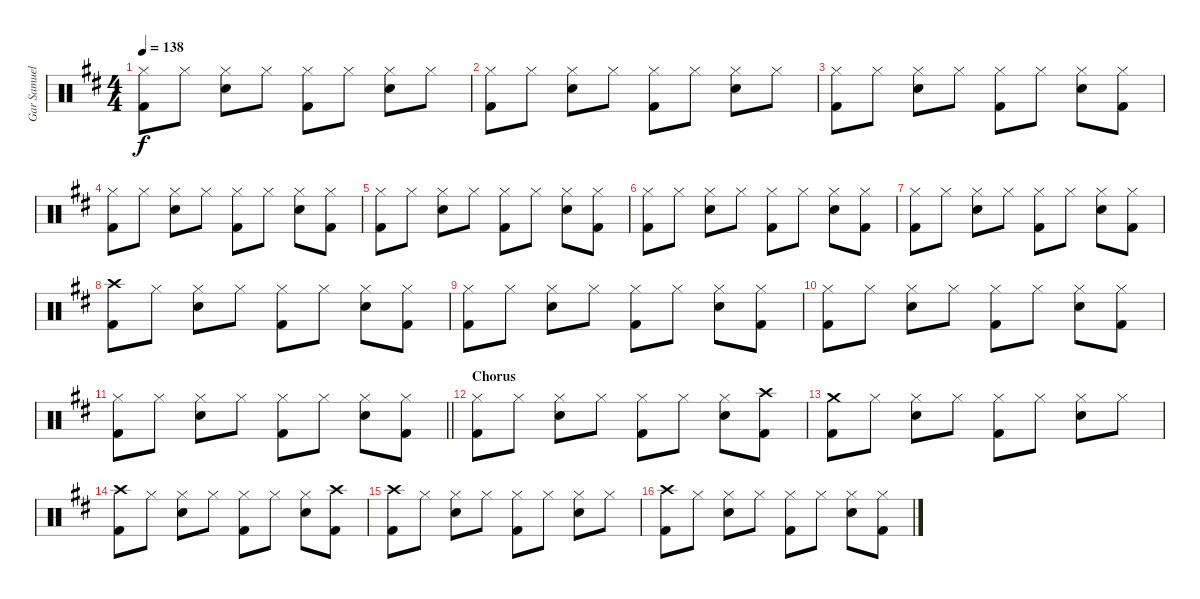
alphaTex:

\track ("Gar Samuelson" "Gar Samuel") {instrument percussion}
\staff {score}
\articulation defaults
\ts (4 4)
\tempo 138
\clef neutral
\ks d
("Hi-Hat (closed)" "Kick (hit) 2").8{dy f} "Hi-Hat (closed)".8 ("Hi-Hat (closed)" "Snare (hit) 2").8 "Hi-Hat (closed)".8 ("Hi-Hat (closed)" "Kick (hit) 2").8 "Hi-Hat (closed)".8 ("Hi-Hat (closed)" "Snare (hit) 2").8 "Hi-Hat (closed)".8 |
("Hi-Hat (closed)" "Kick (hit) 2").8 "Hi-Hat (closed)".8 ("Hi-Hat (closed)" "Snare (hit) 2").8 "Hi-Hat (closed)".8 ("Hi-Hat (closed)" "Kick (hit) 2").8 "Hi-Hat (closed)".8 ("Hi-Hat (closed)" "Snare (hit) 2").8 "Hi-Hat (closed)".8 |
("Hi-Hat (closed)" "Kick (hit) 2").8 "Hi-Hat (closed)".8 ("Hi-Hat (closed)" "Snare (hit) 2").8 "Hi-Hat (closed)".8 ("Hi-Hat (closed)" "Kick (hit) 2").8 "Hi-Hat (closed)".8 ("Hi-Hat (closed)" "Snare (hit) 2").8 ("Hi-Hat (closed)" "Kick (hit) 2").8 |
("Hi-Hat (closed)" "Kick (hit) 2").8 "Hi-Hat (closed)".8 ("Hi-Hat (closed)" "Snare (hit) 2").8 "Hi-Hat (closed)".8 ("Hi-Hat (closed)" "Kick (hit) 2").8 "Hi-Hat (closed)".8 ("Hi-Hat (closed)" "Snare (hit) 2").8 ("Hi-Hat (closed)" "Kick (hit) 2").8 |
("Hi-Hat (closed)" "Kick (hit) 2").8 "Hi-Hat (closed)".8 ("Hi-Hat (closed)" "Snare (hit) 2").8 "Hi-Hat (closed)".8 ("Hi-Hat (closed)" "Kick (hit) 2").8 "Hi-Hat (closed)".8 ("Hi-Hat (closed)" "Snare (hit) 2").8 ("Hi-Hat (closed)" "Kick (hit) 2").8 |
("Hi-Hat (closed)" "Kick (hit) 2").8 "Hi-Hat (closed)".8 ("Hi-Hat (closed)" "Snare (hit) 2").8 "Hi-Hat (closed)".8 ("Hi-Hat (closed)" "Kick (hit) 2").8 "Hi-Hat (closed)".8 ("Hi-Hat (closed)" "Snare (hit) 2").8 ("Hi-Hat (closed)" "Kick (hit) 2").8 |
("Hi-Hat (closed)" "Kick (hit) 2").8 "Hi-Hat (closed)".8 ("Hi-Hat (closed)" "Snare (hit) 2").8 "Hi-Hat (closed)".8 ("Hi-Hat (closed)" "Kick (hit) 2").8 "Hi-Hat (closed)".8 ("Hi-Hat (closed)" "Snare (hit) 2").8 ("Hi-Hat (closed)" "Kick (hit) 2").8 |
("Crash high (hit)" "Kick (hit) 2").8 "Hi-Hat (closed)".8 ("Hi-Hat (closed)" "Snare (hit) 2").8 "Hi-Hat (closed)".8 ("Hi-Hat (closed)" "Kick (hit) 2").8 "Hi-Hat (closed)".8 ("Hi-Hat (closed)" "Snare (hit) 2").8 ("Hi-Hat (closed)" "Kick (hit) 2").8 |
("Hi-Hat (closed)" "Kick (hit) 2").8 "Hi-Hat (closed)".8 ("Hi-Hat (closed)" "Snare (hit) 2").8 "Hi-Hat (closed)".8 ("Hi-Hat (closed)" "Kick (hit) 2").8 "Hi-Hat (closed)".8 ("Hi-Hat (closed)" "Snare (hit) 2").8 ("Hi-Hat (closed)" "Kick (hit) 2").8 |
("Hi-Hat (closed)" "Kick (hit) 2").8 "Hi-Hat (closed)".8 ("Hi-Hat (closed)" "Snare (hit) 2").8 "Hi-Hat (closed)".8 ("Hi-Hat (closed)" "Kick (hit) 2").8 "Hi-Hat (closed)".8 ("Hi-Hat (closed)" "Snare (hit) 2").8 ("Hi-Hat (closed)" "Kick (hit) 2").8 |
\barLineRight lightlight
("Hi-Hat (closed)" "Kick (hit) 2").8 "Hi-Hat (closed)".8 ("Hi-Hat (closed)" "Snare (hit) 2").8 "Hi-Hat (closed)".8 ("Hi-Hat (closed)" "Kick (hit) 2").8 "Hi-Hat (closed)".8 ("Hi-Hat (closed)" "Snare (hit) 2").8 ("Hi-Hat (closed)" "Kick (hit) 2").8 |
\section ("" "Chorus")
("Hi-Hat (closed)" "Kick (hit) 2").8 "Hi-Hat (closed)".8 ("Hi-Hat (closed)" "Snare (hit) 2").8 "Hi-Hat (closed)".8 ("Hi-Hat (closed)" "Kick (hit) 2").8 "Hi-Hat (closed)".8 ("Hi-Hat (closed)" "Snare (hit) 2").8 ("Crash high (hit)" "Kick (hit) 2").8 |
("Crash medium (hit)" "Kick (hit) 2").8 "Hi-Hat (closed)".8 ("Hi-Hat (closed)" "Snare (hit) 2").8 "Hi-Hat (closed)".8 ("Hi-Hat (closed)" "Kick (hit) 2").8 "Hi-Hat (closed)".8 ("Hi-Hat (closed)" "Snare (hit) 2").8 "Hi-Hat (closed)".8 |
("Crash high (hit)" "Kick (hit) 2").8 "Hi-Hat (closed)".8 ("Hi-Hat (closed)" "Snare (hit) 2").8 "Hi-Hat (closed)".8 ("Hi-Hat (closed)" "Kick (hit) 2").8 "Hi-Hat (closed)".8 ("Hi-Hat (closed)" "Snare (hit) 2").8 ("Crash high (hit)" "Kick (hit) 2").8 |
("Crash high (hit)" "Kick (hit) 2").8 "Hi-Hat (closed)".8 ("Hi-Hat (closed)" "Snare (hit) 2").8 "Hi-Hat (closed)".8 ("Hi-Hat (closed)" "Kick (hit) 2").8 "Hi-Hat (closed)".8 ("Hi-Hat (closed)" "Snare (hit) 2").8 "Hi-Hat (closed)".8 |
("Crash high (hit)" "Kick (hit) 2").8 "Hi-Hat (closed)".8 ("Hi-Hat (closed)" "Snare (hit) 2").8 "Hi-Hat (closed)".8 ("Hi-Hat (closed)" "Kick (hit) 2").8 "Hi-Hat (closed)".8 ("Hi-Hat (closed)" "Snare (hit) 2").8 ("Hi-Hat (closed)" "Kick (hit) 2").8
